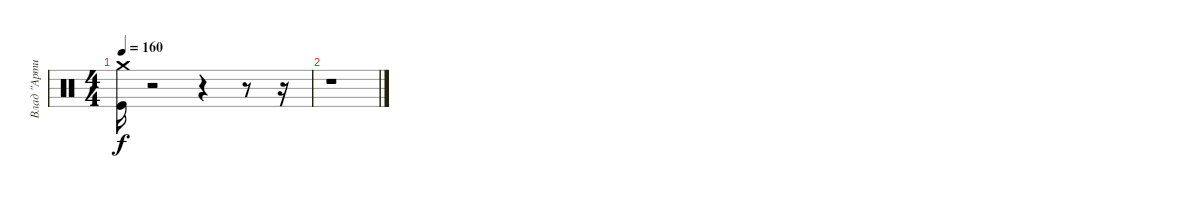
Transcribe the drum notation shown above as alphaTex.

\track ("Влад \"Артист\"" "Влад \"Арти") {instrument percussion}
\staff {score}
\articulation defaults
\ts (4 4)
\tempo 160
\clef neutral
\ks c
("Crash medium (hit)" "Kick (hit)").16{dy f} r.2 r.4 r.8 r.16 |
r.1
